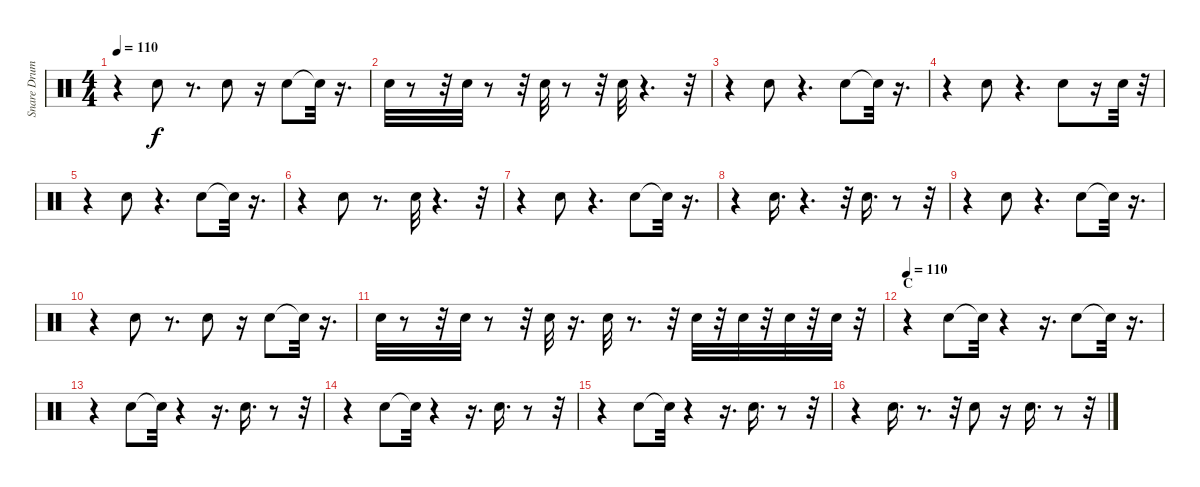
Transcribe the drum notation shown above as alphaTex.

\track ("Snare Drum" "Snare Drum") {instrument percussion}
\staff {score}
\articulation defaults
\ts (4 4)
\tempo 110
\clef neutral
\ks c
r.4{dy f} "Snare (hit) 2".8 r.8{d} "Snare (hit) 2".8 r.16 "Snare (hit) 2".8 "Snare (hit)"{t}.32 r.16{d} |
"Snare (hit) 2".32 r.8 r.32 "Snare (hit) 2".32 r.8 r.32 "Snare (hit) 2".32 r.8 r.32 "Snare (hit) 2".32 r.4{d} r.32 |
r.4 "Snare (hit) 2".8 r.4{d} "Snare (hit) 2".8 "Snare (hit)"{t}.32 r.16{d} |
r.4 "Snare (hit) 2".8 r.4{d} "Snare (hit) 2".8 r.16 "Snare (hit) 2".32 r.32 |
r.4 "Snare (hit) 2".8 r.4{d} "Snare (hit) 2".8 "Snare (hit)"{t}.32 r.16{d} |
r.4 "Snare (hit) 2".8 r.8{d} "Snare (hit) 2".32 r.4{d} r.32 |
r.4 "Snare (hit) 2".8 r.4{d} "Snare (hit) 2".8 "Snare (hit)"{t}.32 r.16{d} |
r.4 "Snare (hit) 2".16{d} r.4{d} r.32 "Snare (hit) 2".16{d} r.8 r.32 |
r.4 "Snare (hit) 2".8 r.4{d} "Snare (hit) 2".8 "Snare (hit)"{t}.32 r.16{d} |
r.4 "Snare (hit) 2".8 r.8{d} "Snare (hit) 2".8 r.16 "Snare (hit) 2".8 "Snare (hit)"{t}.32 r.16{d} |
"Snare (hit) 2".32 r.8 r.32 "Snare (hit) 2".32 r.8 r.32 "Snare (hit) 2".32 r.16{d} "Snare (hit) 2".32 r.8{d} r.32 "Snare (hit) 2".32 r.32 "Snare (hit) 2".32 r.32 "Snare (hit) 2".32 r.32 "Snare (hit) 2".32 r.32 |
\section ("" "C")
\tempo 110
r.4 "Snare (hit) 2".8 "Snare (hit)"{t}.32 r.4 r.16{d} "Snare (hit) 2".8 "Snare (hit)"{t}.32 r.16{d} |
r.4 "Snare (hit) 2".8 "Snare (hit)"{t}.32 r.4 r.16{d} "Snare (hit) 2".16{d} r.8 r.32 |
r.4 "Snare (hit) 2".8 "Snare (hit)"{t}.32 r.4 r.16{d} "Snare (hit) 2".16{d} r.8 r.32 |
r.4 "Snare (hit) 2".8 "Snare (hit)"{t}.32 r.4 r.16{d} "Snare (hit) 2".16{d} r.8 r.32 |
r.4 "Snare (hit) 2".16{d} r.8{d} r.32 "Snare (hit) 2".8 r.16 "Snare (hit) 2".16{d} r.8 r.32
